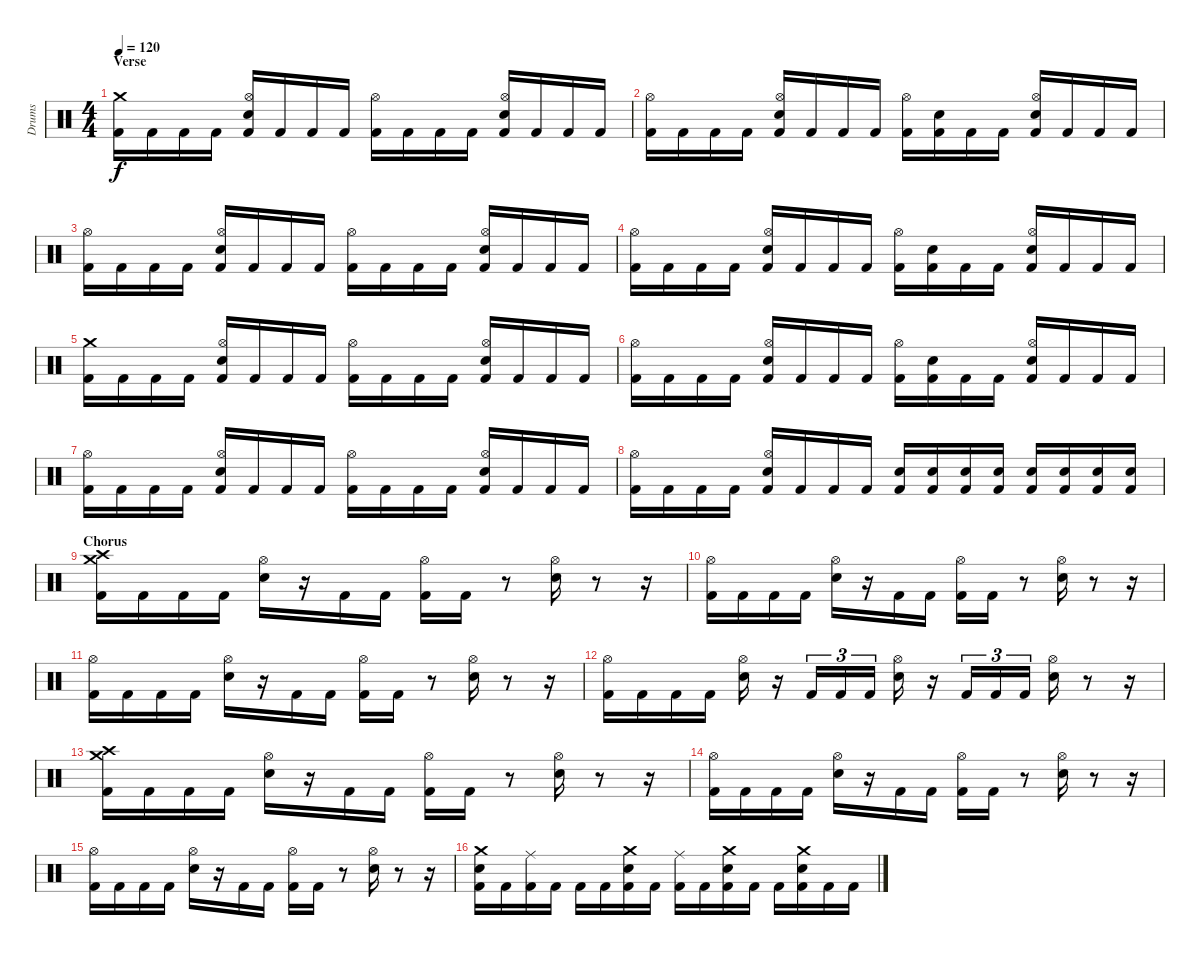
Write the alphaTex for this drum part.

\track ("Drums" "Drums") {instrument percussion}
\staff {score}
\articulation defaults
\ts (4 4)
\section ("" "Verse")
\tempo 120
\clef neutral
\ks c
("Crash medium (hit)" "Kick (hit) 2").16{dy f} "Kick (hit) 2".16 "Kick (hit) 2".16 "Kick (hit) 2".16 ("Hi-Hat (open)" "Electric Snare (hit)" "Kick (hit) 2").16 "Kick (hit) 2".16 "Kick (hit) 2".16 "Kick (hit) 2".16 ("Hi-Hat (open)" "Kick (hit) 2").16 "Kick (hit) 2".16 "Kick (hit) 2".16 "Kick (hit) 2".16 ("Hi-Hat (open)" "Electric Snare (hit)" "Kick (hit) 2").16 "Kick (hit) 2".16 "Kick (hit) 2".16 "Kick (hit) 2".16 |
("Hi-Hat (open)" "Kick (hit) 2").16 "Kick (hit) 2".16 "Kick (hit) 2".16 "Kick (hit) 2".16 ("Hi-Hat (open)" "Electric Snare (hit)" "Kick (hit) 2").16 "Kick (hit) 2".16 "Kick (hit) 2".16 "Kick (hit) 2".16 ("Hi-Hat (open)" "Kick (hit) 2").16 ("Electric Snare (hit)" "Kick (hit) 2").16 "Kick (hit) 2".16 "Kick (hit) 2".16 ("Hi-Hat (open)" "Electric Snare (hit)" "Kick (hit) 2").16 "Kick (hit) 2".16 "Kick (hit) 2".16 "Kick (hit) 2".16 |
("Hi-Hat (open)" "Kick (hit) 2").16 "Kick (hit) 2".16 "Kick (hit) 2".16 "Kick (hit) 2".16 ("Hi-Hat (open)" "Electric Snare (hit)" "Kick (hit) 2").16 "Kick (hit) 2".16 "Kick (hit) 2".16 "Kick (hit) 2".16 ("Hi-Hat (open)" "Kick (hit) 2").16 "Kick (hit) 2".16 "Kick (hit) 2".16 "Kick (hit) 2".16 ("Hi-Hat (open)" "Electric Snare (hit)" "Kick (hit) 2").16 "Kick (hit) 2".16 "Kick (hit) 2".16 "Kick (hit) 2".16 |
("Hi-Hat (open)" "Kick (hit) 2").16 "Kick (hit) 2".16 "Kick (hit) 2".16 "Kick (hit) 2".16 ("Hi-Hat (open)" "Electric Snare (hit)" "Kick (hit) 2").16 "Kick (hit) 2".16 "Kick (hit) 2".16 "Kick (hit) 2".16 ("Hi-Hat (open)" "Kick (hit) 2").16 ("Electric Snare (hit)" "Kick (hit) 2").16 "Kick (hit) 2".16 "Kick (hit) 2".16 ("Hi-Hat (open)" "Electric Snare (hit)" "Kick (hit) 2").16 "Kick (hit) 2".16 "Kick (hit) 2".16 "Kick (hit) 2".16 |
("Crash medium (hit)" "Kick (hit) 2").16 "Kick (hit) 2".16 "Kick (hit) 2".16 "Kick (hit) 2".16 ("Hi-Hat (open)" "Electric Snare (hit)" "Kick (hit) 2").16 "Kick (hit) 2".16 "Kick (hit) 2".16 "Kick (hit) 2".16 ("Hi-Hat (open)" "Kick (hit) 2").16 "Kick (hit) 2".16 "Kick (hit) 2".16 "Kick (hit) 2".16 ("Hi-Hat (open)" "Electric Snare (hit)" "Kick (hit) 2").16 "Kick (hit) 2".16 "Kick (hit) 2".16 "Kick (hit) 2".16 |
("Hi-Hat (open)" "Kick (hit) 2").16 "Kick (hit) 2".16 "Kick (hit) 2".16 "Kick (hit) 2".16 ("Hi-Hat (open)" "Electric Snare (hit)" "Kick (hit) 2").16 "Kick (hit) 2".16 "Kick (hit) 2".16 "Kick (hit) 2".16 ("Hi-Hat (open)" "Kick (hit) 2").16 ("Electric Snare (hit)" "Kick (hit) 2").16 "Kick (hit) 2".16 "Kick (hit) 2".16 ("Hi-Hat (open)" "Electric Snare (hit)" "Kick (hit) 2").16 "Kick (hit) 2".16 "Kick (hit) 2".16 "Kick (hit) 2".16 |
("Hi-Hat (open)" "Kick (hit) 2").16 "Kick (hit) 2".16 "Kick (hit) 2".16 "Kick (hit) 2".16 ("Hi-Hat (open)" "Electric Snare (hit)" "Kick (hit) 2").16 "Kick (hit) 2".16 "Kick (hit) 2".16 "Kick (hit) 2".16 ("Hi-Hat (open)" "Kick (hit) 2").16 "Kick (hit) 2".16 "Kick (hit) 2".16 "Kick (hit) 2".16 ("Hi-Hat (open)" "Electric Snare (hit)" "Kick (hit) 2").16 "Kick (hit) 2".16 "Kick (hit) 2".16 "Kick (hit) 2".16 |
("Hi-Hat (open)" "Kick (hit) 2").16 "Kick (hit) 2".16 "Kick (hit) 2".16 "Kick (hit) 2".16 ("Hi-Hat (open)" "Electric Snare (hit)" "Kick (hit) 2").16 "Kick (hit) 2".16 "Kick (hit) 2".16 "Kick (hit) 2".16 ("Electric Snare (hit)" "Kick (hit) 2").16 ("Electric Snare (hit)" "Kick (hit) 2").16 ("Electric Snare (hit)" "Kick (hit) 2").16 ("Electric Snare (hit)" "Kick (hit) 2").16 ("Electric Snare (hit)" "Kick (hit) 2").16 ("Electric Snare (hit)" "Kick (hit) 2").16 ("Electric Snare (hit)" "Kick (hit) 2").16 ("Electric Snare (hit)" "Kick (hit) 2").16 |
\section ("" "Chorus")
("Crash medium (hit)" "Crash high (hit)" "Kick (hit) 2").16 "Kick (hit) 2".16 "Kick (hit) 2".16 "Kick (hit) 2".16 ("Hi-Hat (open)" "Electric Snare (hit)").16 r.16 "Kick (hit) 2".16 "Kick (hit) 2".16 ("Hi-Hat (open)" "Kick (hit) 2").16 "Kick (hit) 2".16 r.8 ("Hi-Hat (open)" "Electric Snare (hit)").16 r.8 r.16 |
("Hi-Hat (open)" "Kick (hit) 2").16 "Kick (hit) 2".16 "Kick (hit) 2".16 "Kick (hit) 2".16 ("Hi-Hat (open)" "Electric Snare (hit)").16 r.16 "Kick (hit) 2".16 "Kick (hit) 2".16 ("Hi-Hat (open)" "Kick (hit) 2").16 "Kick (hit) 2".16 r.8 ("Hi-Hat (open)" "Electric Snare (hit)").16 r.8 r.16 |
("Hi-Hat (open)" "Kick (hit) 2").16 "Kick (hit) 2".16 "Kick (hit) 2".16 "Kick (hit) 2".16 ("Hi-Hat (open)" "Electric Snare (hit)").16 r.16 "Kick (hit) 2".16 "Kick (hit) 2".16 ("Hi-Hat (open)" "Kick (hit) 2").16 "Kick (hit) 2".16 r.8 ("Hi-Hat (open)" "Electric Snare (hit)").16 r.8 r.16 |
("Hi-Hat (open)" "Kick (hit) 2").16 "Kick (hit) 2".16 "Kick (hit) 2".16 "Kick (hit) 2".16 ("Hi-Hat (open)" "Electric Snare (hit)").16 r.16 "Kick (hit) 2".16{tu (3 2)} "Kick (hit) 2".16{tu (3 2)} "Kick (hit) 2".16{tu (3 2)} ("Hi-Hat (open)" "Electric Snare (hit)").16 r.16 "Kick (hit) 2".16{tu (3 2)} "Kick (hit) 2".16{tu (3 2)} "Kick (hit) 2".16{tu (3 2)} ("Hi-Hat (open)" "Electric Snare (hit)").16 r.8 r.16 |
("Crash medium (hit)" "Crash high (hit)" "Kick (hit) 2").16 "Kick (hit) 2".16 "Kick (hit) 2".16 "Kick (hit) 2".16 ("Hi-Hat (open)" "Electric Snare (hit)").16 r.16 "Kick (hit) 2".16 "Kick (hit) 2".16 ("Hi-Hat (open)" "Kick (hit) 2").16 "Kick (hit) 2".16 r.8 ("Hi-Hat (open)" "Electric Snare (hit)").16 r.8 r.16 |
("Hi-Hat (open)" "Kick (hit) 2").16 "Kick (hit) 2".16 "Kick (hit) 2".16 "Kick (hit) 2".16 ("Hi-Hat (open)" "Electric Snare (hit)").16 r.16 "Kick (hit) 2".16 "Kick (hit) 2".16 ("Hi-Hat (open)" "Kick (hit) 2").16 "Kick (hit) 2".16 r.8 ("Hi-Hat (open)" "Electric Snare (hit)").16 r.8 r.16 |
("Hi-Hat (open)" "Kick (hit) 2").16 "Kick (hit) 2".16 "Kick (hit) 2".16 "Kick (hit) 2".16 ("Hi-Hat (open)" "Electric Snare (hit)").16 r.16 "Kick (hit) 2".16 "Kick (hit) 2".16 ("Hi-Hat (open)" "Kick (hit) 2").16 "Kick (hit) 2".16 r.8 ("Hi-Hat (open)" "Electric Snare (hit)").16 r.8 r.16 |
("Crash medium (hit)" "Electric Snare (hit)" "Kick (hit) 2").16 "Kick (hit) 2".16 ("Ride (middle)" "Kick (hit) 2").16 "Kick (hit) 2".16 "Kick (hit) 2".16 "Kick (hit) 2".16 ("Crash medium (hit)" "Electric Snare (hit)" "Kick (hit) 2").16 "Kick (hit) 2".16 ("Ride (middle)" "Kick (hit) 2").16 "Kick (hit) 2".16 ("Crash medium (hit)" "Electric Snare (hit)" "Kick (hit) 2").16 "Kick (hit) 2".16 "Kick (hit) 2".16 ("Crash medium (hit)" "Electric Snare (hit)" "Kick (hit) 2").16 "Kick (hit) 2".16 "Kick (hit) 2".16
